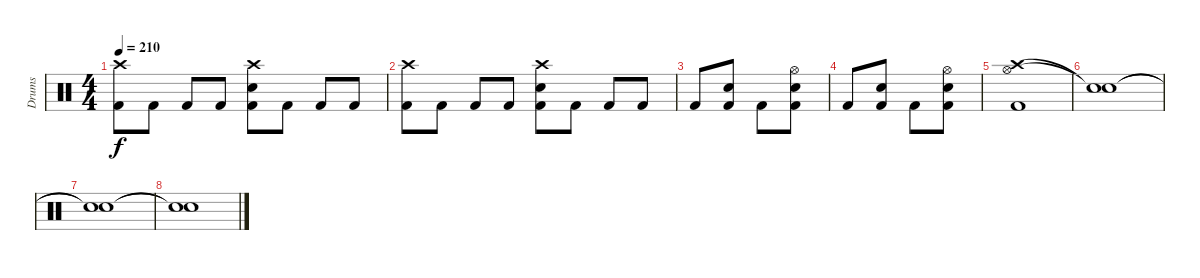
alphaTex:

\track ("Drums" "Drums") {instrument percussion}
\staff {score}
\articulation defaults
\ts (4 4)
\tempo 210
\clef neutral
\ks c
("Crash high (hit)" "Kick (hit) 2").8{dy f} "Kick (hit) 2".8 "Kick (hit) 2".8 "Kick (hit) 2".8 ("Crash high (hit)" "Electric Snare (hit)" "Kick (hit) 2").8 "Kick (hit) 2".8 "Kick (hit) 2".8 "Kick (hit) 2".8 |
("Crash high (hit)" "Kick (hit) 2").8 "Kick (hit) 2".8 "Kick (hit) 2".8 "Kick (hit) 2".8 ("Crash high (hit)" "Electric Snare (hit)" "Kick (hit) 2").8 "Kick (hit) 2".8 "Kick (hit) 2".8 "Kick (hit) 2".8 |
"Kick (hit) 2".8 ("Electric Snare (hit)" "Kick (hit) 2").8 "Kick (hit) 2".8 ("Hi-Hat (open)" "Electric Snare (hit)" "Kick (hit) 2").8 |
"Kick (hit) 2".8 ("Electric Snare (hit)" "Kick (hit) 2").8 "Kick (hit) 2".8 ("Hi-Hat (open)" "Electric Snare (hit)" "Kick (hit) 2").8 |
("Hi-Hat (open)" "Crash high (hit)" "Kick (hit) 2").1 |
("Snare (hit)"{t} "Snare (hit)"{t}).1 |
("Snare (hit)"{t} "Snare (hit)"{t}).1 |
("Snare (hit)"{t} "Snare (hit)"{t}).1
